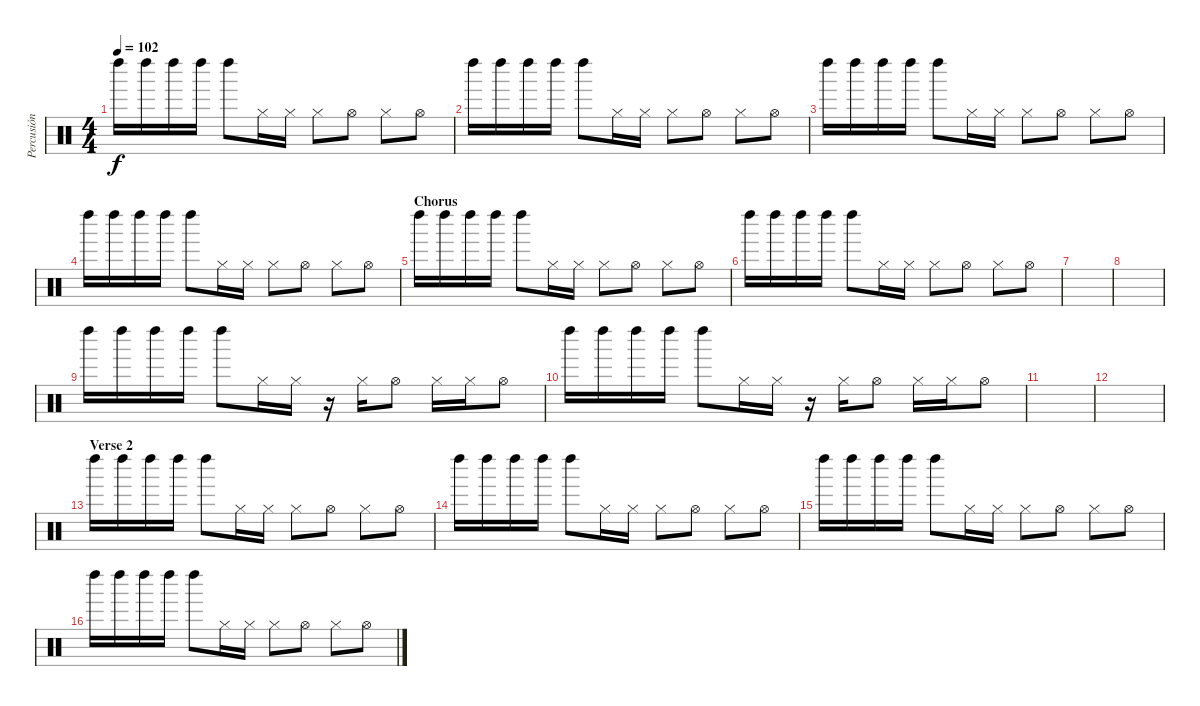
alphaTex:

\track ("Percusión" "Percusión") {instrument percussion}
\staff {score}
\articulation defaults
\ts (4 4)
\tempo 102
\clef neutral
\ks c "Left Maraca (hit)".16{dy f} "Left Maraca (hit)".16 "Left Maraca (hit)".16 "Left Maraca (hit)".16 "Left Maraca (hit)".8 "Hi-Hat (closed)".16 "Hi-Hat (closed)".16 "Hi-Hat (closed)".8 "Hi-Hat (open)".8 "Hi-Hat (closed)".8 "Hi-Hat (open)".8
|
"Left Maraca (hit)".16 "Left Maraca (hit)".16 "Left Maraca (hit)".16 "Left Maraca (hit)".16 "Left Maraca (hit)".8 "Hi-Hat (closed)".16 "Hi-Hat (closed)".16 "Hi-Hat (closed)".8 "Hi-Hat (open)".8 "Hi-Hat (closed)".8 "Hi-Hat (open)".8 |
"Left Maraca (hit)".16 "Left Maraca (hit)".16 "Left Maraca (hit)".16 "Left Maraca (hit)".16 "Left Maraca (hit)".8 "Hi-Hat (closed)".16 "Hi-Hat (closed)".16 "Hi-Hat (closed)".8 "Hi-Hat (open)".8 "Hi-Hat (closed)".8 "Hi-Hat (open)".8 |
"Left Maraca (hit)".16 "Left Maraca (hit)".16 "Left Maraca (hit)".16 "Left Maraca (hit)".16 "Left Maraca (hit)".8 "Hi-Hat (closed)".16 "Hi-Hat (closed)".16 "Hi-Hat (closed)".8 "Hi-Hat (open)".8 "Hi-Hat (closed)".8 "Hi-Hat (open)".8 |
\section ("" "Chorus")
"Left Maraca (hit)".16 "Left Maraca (hit)".16 "Left Maraca (hit)".16 "Left Maraca (hit)".16 "Left Maraca (hit)".8 "Hi-Hat (closed)".16 "Hi-Hat (closed)".16 "Hi-Hat (closed)".8 "Hi-Hat (open)".8 "Hi-Hat (closed)".8 "Hi-Hat (open)".8 |
"Left Maraca (hit)".16 "Left Maraca (hit)".16 "Left Maraca (hit)".16 "Left Maraca (hit)".16 "Left Maraca (hit)".8 "Hi-Hat (closed)".16 "Hi-Hat (closed)".16 "Hi-Hat (closed)".8 "Hi-Hat (open)".8 "Hi-Hat (closed)".8 "Hi-Hat (open)".8 |
|
|
"Left Maraca (hit)".16 "Left Maraca (hit)".16 "Left Maraca (hit)".16 "Left Maraca (hit)".16 "Left Maraca (hit)".8 "Hi-Hat (closed)".16 "Hi-Hat (closed)".16 r.16 "Hi-Hat (closed)".16 "Hi-Hat (open)".8 "Hi-Hat (closed)".16 "Hi-Hat (closed)".16 "Hi-Hat (open)".8 |
"Left Maraca (hit)".16 "Left Maraca (hit)".16 "Left Maraca (hit)".16 "Left Maraca (hit)".16 "Left Maraca (hit)".8 "Hi-Hat (closed)".16 "Hi-Hat (closed)".16 r.16 "Hi-Hat (closed)".16 "Hi-Hat (open)".8 "Hi-Hat (closed)".16 "Hi-Hat (closed)".16 "Hi-Hat (open)".8 |
|
|
\section ("" "Verse 2")
"Left Maraca (hit)".16 "Left Maraca (hit)".16 "Left Maraca (hit)".16 "Left Maraca (hit)".16 "Left Maraca (hit)".8 "Hi-Hat (closed)".16 "Hi-Hat (closed)".16 "Hi-Hat (closed)".8 "Hi-Hat (open)".8 "Hi-Hat (closed)".8 "Hi-Hat (open)".8 |
"Left Maraca (hit)".16 "Left Maraca (hit)".16 "Left Maraca (hit)".16 "Left Maraca (hit)".16 "Left Maraca (hit)".8 "Hi-Hat (closed)".16 "Hi-Hat (closed)".16 "Hi-Hat (closed)".8 "Hi-Hat (open)".8 "Hi-Hat (closed)".8 "Hi-Hat (open)".8 |
"Left Maraca (hit)".16 "Left Maraca (hit)".16 "Left Maraca (hit)".16 "Left Maraca (hit)".16 "Left Maraca (hit)".8 "Hi-Hat (closed)".16 "Hi-Hat (closed)".16 "Hi-Hat (closed)".8 "Hi-Hat (open)".8 "Hi-Hat (closed)".8 "Hi-Hat (open)".8 |
"Left Maraca (hit)".16 "Left Maraca (hit)".16 "Left Maraca (hit)".16 "Left Maraca (hit)".16 "Left Maraca (hit)".8 "Hi-Hat (closed)".16 "Hi-Hat (closed)".16 "Hi-Hat (closed)".8 "Hi-Hat (open)".8 "Hi-Hat (closed)".8 "Hi-Hat (open)".8
